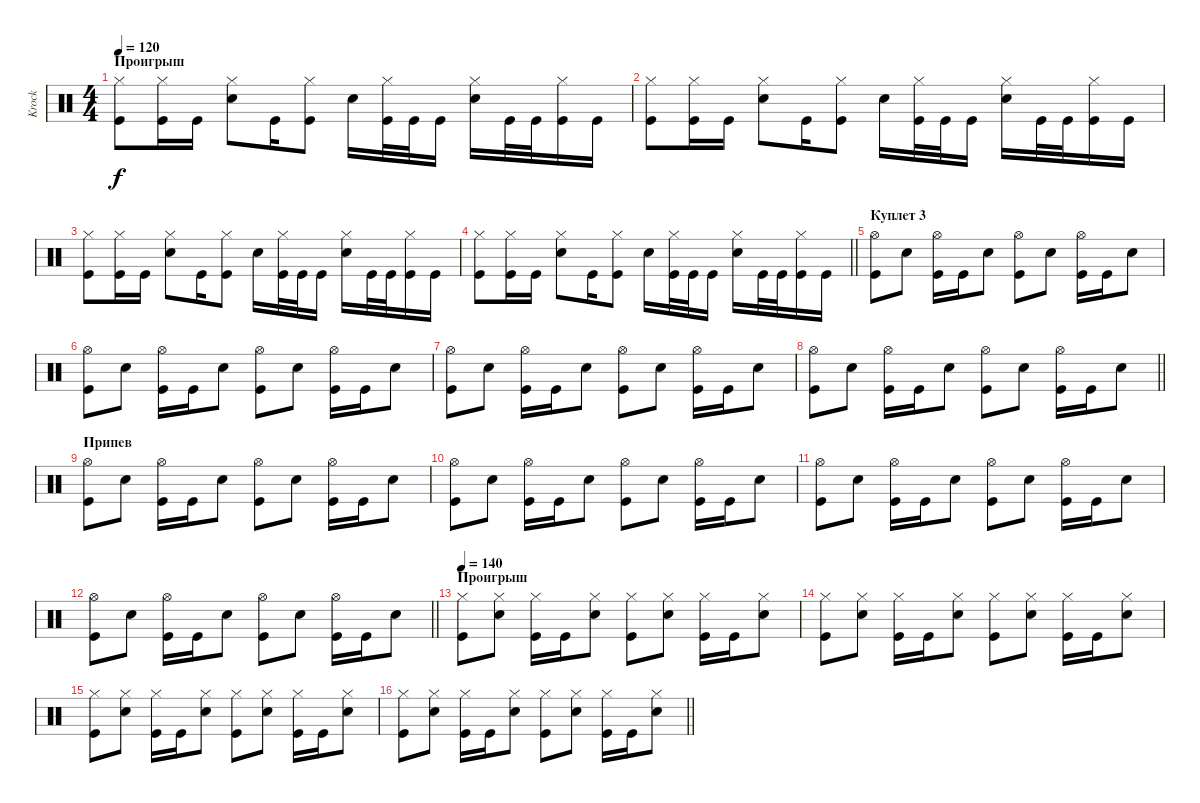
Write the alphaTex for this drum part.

\track ("Krock" "Krock") {instrument percussion}
\staff {score}
\articulation defaults
\ts (4 4)
\section ("" "Проигрыш")
\tempo 120
\clef neutral
\ks c
("Hi-Hat (closed)" "Kick (hit)").8{dy f} ("Hi-Hat (closed)" "Kick (hit)").16 "Kick (hit)".16 ("Hi-Hat (closed)" "Snare (hit) 2").8 "Kick (hit)".16 ("Hi-Hat (closed)" "Kick (hit)").8 "Snare (hit) 2".16 ("Hi-Hat (closed)" "Kick (hit)").32 "Kick (hit)".32 "Kick (hit)".16 ("Hi-Hat (closed)" "Snare (hit) 2").16 "Kick (hit)".32 "Kick (hit)".32 ("Hi-Hat (closed)" "Kick (hit)").16 "Kick (hit)".16 |
("Hi-Hat (closed)" "Kick (hit)").8 ("Hi-Hat (closed)" "Kick (hit)").16 "Kick (hit)".16 ("Hi-Hat (closed)" "Snare (hit) 2").8 "Kick (hit)".16 ("Hi-Hat (closed)" "Kick (hit)").8 "Snare (hit) 2".16 ("Hi-Hat (closed)" "Kick (hit)").32 "Kick (hit)".32 "Kick (hit)".16 ("Hi-Hat (closed)" "Snare (hit) 2").16 "Kick (hit)".32 "Kick (hit)".32 ("Hi-Hat (closed)" "Kick (hit)").16 "Kick (hit)".16 |
("Hi-Hat (closed)" "Kick (hit)").8 ("Hi-Hat (closed)" "Kick (hit)").16 "Kick (hit)".16 ("Hi-Hat (closed)" "Snare (hit) 2").8 "Kick (hit)".16 ("Hi-Hat (closed)" "Kick (hit)").8 "Snare (hit) 2".16 ("Hi-Hat (closed)" "Kick (hit)").32 "Kick (hit)".32 "Kick (hit)".16 ("Hi-Hat (closed)" "Snare (hit) 2").16 "Kick (hit)".32 "Kick (hit)".32 ("Hi-Hat (closed)" "Kick (hit)").16 "Kick (hit)".16 |
\barLineRight lightlight
("Hi-Hat (closed)" "Kick (hit)").8 ("Hi-Hat (closed)" "Kick (hit)").16 "Kick (hit)".16 ("Hi-Hat (closed)" "Snare (hit) 2").8 "Kick (hit)".16 ("Hi-Hat (closed)" "Kick (hit)").8 "Snare (hit) 2".16 ("Hi-Hat (closed)" "Kick (hit)").32 "Kick (hit)".32 "Kick (hit)".16 ("Hi-Hat (closed)" "Snare (hit) 2").16 "Kick (hit)".32 "Kick (hit)".32 ("Hi-Hat (closed)" "Kick (hit)").16 "Kick (hit)".16 |
\section ("" "Куплет 3")
("Hi-Hat (open)" "Kick (hit)").8 "Snare (hit) 2".8 ("Hi-Hat (open)" "Kick (hit)").16 "Kick (hit)".16 "Snare (hit) 2".8 ("Hi-Hat (open)" "Kick (hit)").8 "Snare (hit) 2".8 ("Hi-Hat (open)" "Kick (hit)").16 "Kick (hit)".16 "Snare (hit) 2".8 |
("Hi-Hat (open)" "Kick (hit)").8 "Snare (hit) 2".8 ("Hi-Hat (open)" "Kick (hit)").16 "Kick (hit)".16 "Snare (hit) 2".8 ("Hi-Hat (open)" "Kick (hit)").8 "Snare (hit) 2".8 ("Hi-Hat (open)" "Kick (hit)").16 "Kick (hit)".16 "Snare (hit) 2".8 |
("Hi-Hat (open)" "Kick (hit)").8 "Snare (hit) 2".8 ("Hi-Hat (open)" "Kick (hit)").16 "Kick (hit)".16 "Snare (hit) 2".8 ("Hi-Hat (open)" "Kick (hit)").8 "Snare (hit) 2".8 ("Hi-Hat (open)" "Kick (hit)").16 "Kick (hit)".16 "Snare (hit) 2".8 |
\barLineRight lightlight
("Hi-Hat (open)" "Kick (hit)").8 "Snare (hit) 2".8 ("Hi-Hat (open)" "Kick (hit)").16 "Kick (hit)".16 "Snare (hit) 2".8 ("Hi-Hat (open)" "Kick (hit)").8 "Snare (hit) 2".8 ("Hi-Hat (open)" "Kick (hit)").16 "Kick (hit)".16 "Snare (hit) 2".8 |
\section ("" "Припев")
("Hi-Hat (open)" "Kick (hit)").8 "Snare (hit) 2".8 ("Hi-Hat (open)" "Kick (hit)").16 "Kick (hit)".16 "Snare (hit) 2".8 ("Hi-Hat (open)" "Kick (hit)").8 "Snare (hit) 2".8 ("Hi-Hat (open)" "Kick (hit)").16 "Kick (hit)".16 "Snare (hit) 2".8 |
("Hi-Hat (open)" "Kick (hit)").8 "Snare (hit) 2".8 ("Hi-Hat (open)" "Kick (hit)").16 "Kick (hit)".16 "Snare (hit) 2".8 ("Hi-Hat (open)" "Kick (hit)").8 "Snare (hit) 2".8 ("Hi-Hat (open)" "Kick (hit)").16 "Kick (hit)".16 "Snare (hit) 2".8 |
("Hi-Hat (open)" "Kick (hit)").8 "Snare (hit) 2".8 ("Hi-Hat (open)" "Kick (hit)").16 "Kick (hit)".16 "Snare (hit) 2".8 ("Hi-Hat (open)" "Kick (hit)").8 "Snare (hit) 2".8 ("Hi-Hat (open)" "Kick (hit)").16 "Kick (hit)".16 "Snare (hit) 2".8 |
\barLineRight lightlight
("Hi-Hat (open)" "Kick (hit)").8 "Snare (hit) 2".8 ("Hi-Hat (open)" "Kick (hit)").16 "Kick (hit)".16 "Snare (hit) 2".8 ("Hi-Hat (open)" "Kick (hit)").8 "Snare (hit) 2".8 ("Hi-Hat (open)" "Kick (hit)").16 "Kick (hit)".16 "Snare (hit) 2".8 |
\section ("" "Проигрыш")
\tempo 140
("Hi-Hat (closed)" "Kick (hit)").8 ("Hi-Hat (closed)" "Snare (hit) 2").8 ("Hi-Hat (closed)" "Kick (hit)").16 "Kick (hit)".16 ("Hi-Hat (closed)" "Snare (hit) 2").8 ("Hi-Hat (closed)" "Kick (hit)").8 ("Hi-Hat (closed)" "Snare (hit) 2").8 ("Hi-Hat (closed)" "Kick (hit)").16 "Kick (hit)".16 ("Hi-Hat (closed)" "Snare (hit) 2").8 |
("Hi-Hat (closed)" "Kick (hit)").8 ("Hi-Hat (closed)" "Snare (hit) 2").8 ("Hi-Hat (closed)" "Kick (hit)").16 "Kick (hit)".16 ("Hi-Hat (closed)" "Snare (hit) 2").8 ("Hi-Hat (closed)" "Kick (hit)").8 ("Hi-Hat (closed)" "Snare (hit) 2").8 ("Hi-Hat (closed)" "Kick (hit)").16 "Kick (hit)".16 ("Hi-Hat (closed)" "Snare (hit) 2").8 |
("Hi-Hat (closed)" "Kick (hit)").8 ("Hi-Hat (closed)" "Snare (hit) 2").8 ("Hi-Hat (closed)" "Kick (hit)").16 "Kick (hit)".16 ("Hi-Hat (closed)" "Snare (hit) 2").8 ("Hi-Hat (closed)" "Kick (hit)").8 ("Hi-Hat (closed)" "Snare (hit) 2").8 ("Hi-Hat (closed)" "Kick (hit)").16 "Kick (hit)".16 ("Hi-Hat (closed)" "Snare (hit) 2").8 |
\barLineRight lightlight
("Hi-Hat (closed)" "Kick (hit)").8 ("Hi-Hat (closed)" "Snare (hit) 2").8 ("Hi-Hat (closed)" "Kick (hit)").16 "Kick (hit)".16 ("Hi-Hat (closed)" "Snare (hit) 2").8 ("Hi-Hat (closed)" "Kick (hit)").8 ("Hi-Hat (closed)" "Snare (hit) 2").8 ("Hi-Hat (closed)" "Kick (hit)").16 "Kick (hit)".16 ("Hi-Hat (closed)" "Snare (hit) 2").8
